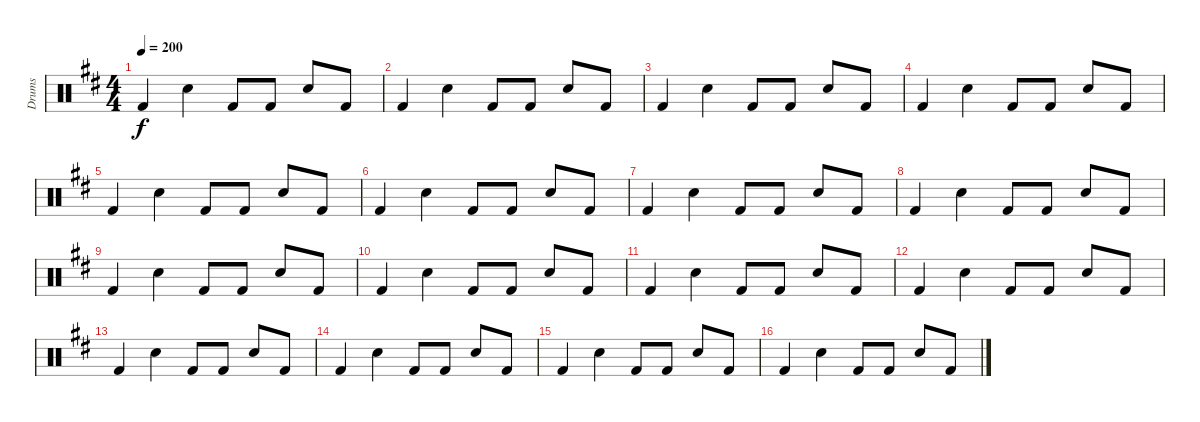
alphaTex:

\track ("Drums" "Drums") {instrument percussion}
\staff {score}
\articulation defaults
\ts (4 4)
\tempo 200
\clef neutral
\ks d "Kick (hit) 2".4{dy f} "Electric Snare (hit)".4 "Kick (hit) 2".8 "Kick (hit) 2".8 "Electric Snare (hit)".8 "Kick (hit) 2".8
|
"Kick (hit) 2".4 "Electric Snare (hit)".4 "Kick (hit) 2".8 "Kick (hit) 2".8 "Electric Snare (hit)".8 "Kick (hit) 2".8 |
"Kick (hit) 2".4 "Electric Snare (hit)".4 "Kick (hit) 2".8 "Kick (hit) 2".8 "Electric Snare (hit)".8 "Kick (hit) 2".8 |
"Kick (hit) 2".4 "Electric Snare (hit)".4 "Kick (hit) 2".8 "Kick (hit) 2".8 "Electric Snare (hit)".8 "Kick (hit) 2".8 |
"Kick (hit) 2".4 "Electric Snare (hit)".4 "Kick (hit) 2".8 "Kick (hit) 2".8 "Electric Snare (hit)".8 "Kick (hit) 2".8 |
"Kick (hit) 2".4 "Electric Snare (hit)".4 "Kick (hit) 2".8 "Kick (hit) 2".8 "Electric Snare (hit)".8 "Kick (hit) 2".8 |
"Kick (hit) 2".4 "Electric Snare (hit)".4 "Kick (hit) 2".8 "Kick (hit) 2".8 "Electric Snare (hit)".8 "Kick (hit) 2".8 |
"Kick (hit) 2".4 "Electric Snare (hit)".4 "Kick (hit) 2".8 "Kick (hit) 2".8 "Electric Snare (hit)".8 "Kick (hit) 2".8 |
"Kick (hit) 2".4 "Electric Snare (hit)".4 "Kick (hit) 2".8 "Kick (hit) 2".8 "Electric Snare (hit)".8 "Kick (hit) 2".8 |
"Kick (hit) 2".4 "Electric Snare (hit)".4 "Kick (hit) 2".8 "Kick (hit) 2".8 "Electric Snare (hit)".8 "Kick (hit) 2".8 |
"Kick (hit) 2".4 "Electric Snare (hit)".4 "Kick (hit) 2".8 "Kick (hit) 2".8 "Electric Snare (hit)".8 "Kick (hit) 2".8 |
"Kick (hit) 2".4 "Electric Snare (hit)".4 "Kick (hit) 2".8 "Kick (hit) 2".8 "Electric Snare (hit)".8 "Kick (hit) 2".8 |
"Kick (hit) 2".4 "Electric Snare (hit)".4 "Kick (hit) 2".8 "Kick (hit) 2".8 "Electric Snare (hit)".8 "Kick (hit) 2".8 |
"Kick (hit) 2".4 "Electric Snare (hit)".4 "Kick (hit) 2".8 "Kick (hit) 2".8 "Electric Snare (hit)".8 "Kick (hit) 2".8 |
"Kick (hit) 2".4 "Electric Snare (hit)".4 "Kick (hit) 2".8 "Kick (hit) 2".8 "Electric Snare (hit)".8 "Kick (hit) 2".8 |
"Kick (hit) 2".4 "Electric Snare (hit)".4 "Kick (hit) 2".8 "Kick (hit) 2".8 "Electric Snare (hit)".8 "Kick (hit) 2".8
